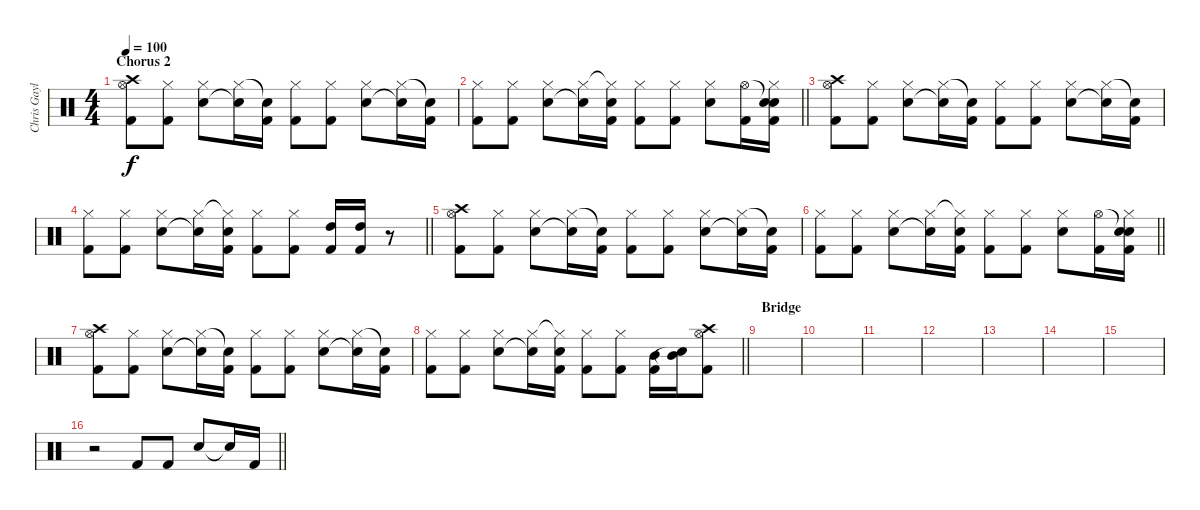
\track ("Chris Gaylor (Drums)" "Chris Gayl") {instrument percussion}
\staff {score}
\articulation defaults
\ts (4 4)
\section ("" "Chorus 2")
\tempo 100
\clef neutral
\ks c
("Hi-Hat (open)" "Crash high (hit)" "Kick (hit) 2").8{dy f} ("Hi-Hat (closed)" "Kick (hit) 2").8 ("Hi-Hat (closed)" "Snare (hit) 2").8 ("Hi-Hat (closed)" "Snare (hit)"{t}).16 ("Snare (hit)"{t} "Kick (hit) 2").16 ("Hi-Hat (closed)" "Kick (hit) 2").8 ("Hi-Hat (closed)" "Kick (hit) 2").8 ("Hi-Hat (closed)" "Snare (hit) 2").8 ("Hi-Hat (closed)" "Snare (hit)"{t}).16 ("Snare (hit)"{t} "Kick (hit) 2").16 |
\barLineRight lightlight
("Hi-Hat (closed)" "Kick (hit) 2").8 ("Hi-Hat (closed)" "Kick (hit) 2").8 ("Hi-Hat (closed)" "Snare (hit) 2").8 ("Hi-Hat (closed)" "Snare (hit)"{t}).16 ("Hi-Hat (closed)"{t} "Snare (hit) 2" "Kick (hit) 2").16 ("Hi-Hat (closed)" "Kick (hit) 2").8 ("Hi-Hat (closed)" "Kick (hit) 2").8 ("Hi-Hat (closed)" "Snare (hit) 2").8 ("Hi-Hat (open)" "Kick (hit) 2").16 ("Snare (hit)"{t} "Hi-Hat (closed)" "Snare (hit) 2" "Kick (hit) 2").16 |
("Hi-Hat (open)" "Crash high (hit)" "Kick (hit) 2").8 ("Hi-Hat (closed)" "Kick (hit) 2").8 ("Hi-Hat (closed)" "Snare (hit) 2").8 ("Hi-Hat (closed)" "Snare (hit)"{t}).16 ("Snare (hit)"{t} "Kick (hit) 2").16 ("Hi-Hat (closed)" "Kick (hit) 2").8 ("Hi-Hat (closed)" "Kick (hit) 2").8 ("Hi-Hat (closed)" "Snare (hit) 2").8 ("Hi-Hat (closed)" "Snare (hit)"{t}).16 ("Snare (hit)"{t} "Kick (hit) 2").16 |
\barLineRight lightlight
("Hi-Hat (closed)" "Kick (hit) 2").8 ("Hi-Hat (closed)" "Kick (hit) 2").8 ("Hi-Hat (closed)" "Snare (hit) 2").8 ("Hi-Hat (closed)" "Snare (hit)"{t}).16 ("Hi-Hat (closed)"{t} "Snare (hit) 2" "Kick (hit) 2").16 ("Hi-Hat (closed)" "Kick (hit) 2").8 ("Hi-Hat (closed)" "Kick (hit) 2").8 ("High Tom (hit)" "Kick (hit) 2").16 ("High Tom (hit)" "Kick (hit) 2").16 r.8 |
("Hi-Hat (open)" "Crash high (hit)" "Kick (hit) 2").8 ("Hi-Hat (closed)" "Kick (hit) 2").8 ("Hi-Hat (closed)" "Snare (hit) 2").8 ("Hi-Hat (closed)" "Snare (hit)"{t}).16 ("Snare (hit)"{t} "Kick (hit) 2").16 ("Hi-Hat (closed)" "Kick (hit) 2").8 ("Hi-Hat (closed)" "Kick (hit) 2").8 ("Hi-Hat (closed)" "Snare (hit) 2").8 ("Hi-Hat (closed)" "Snare (hit)"{t}).16 ("Snare (hit)"{t} "Kick (hit) 2").16 |
\barLineRight lightlight
("Hi-Hat (closed)" "Kick (hit) 2").8 ("Hi-Hat (closed)" "Kick (hit) 2").8 ("Hi-Hat (closed)" "Snare (hit) 2").8 ("Hi-Hat (closed)" "Snare (hit)"{t}).16 ("Hi-Hat (closed)"{t} "Snare (hit) 2" "Kick (hit) 2").16 ("Hi-Hat (closed)" "Kick (hit) 2").8 ("Hi-Hat (closed)" "Kick (hit) 2").8 ("Hi-Hat (closed)" "Snare (hit) 2").8 ("Hi-Hat (open)" "Kick (hit) 2").16 ("Snare (hit)"{t} "Hi-Hat (closed)" "Snare (hit) 2" "Kick (hit) 2").16 |
("Hi-Hat (open)" "Crash high (hit)" "Kick (hit) 2").8 ("Hi-Hat (closed)" "Kick (hit) 2").8 ("Hi-Hat (closed)" "Snare (hit) 2").8 ("Hi-Hat (closed)" "Snare (hit)"{t}).16 ("Snare (hit)"{t} "Kick (hit) 2").16 ("Hi-Hat (closed)" "Kick (hit) 2").8 ("Hi-Hat (closed)" "Kick (hit) 2").8 ("Hi-Hat (closed)" "Snare (hit) 2").8 ("Hi-Hat (closed)" "Snare (hit)"{t}).16 ("Snare (hit)"{t} "Kick (hit) 2").16 |
\barLineRight lightlight
("Hi-Hat (closed)" "Kick (hit) 2").8 ("Hi-Hat (closed)" "Kick (hit) 2").8 ("Hi-Hat (closed)" "Snare (hit) 2").8 ("Hi-Hat (closed)" "Snare (hit)"{t}).16 ("Hi-Hat (closed)"{t} "Snare (hit) 2" "Kick (hit) 2").16 ("Hi-Hat (closed)" "Kick (hit) 2").8 ("Hi-Hat (closed)" "Kick (hit) 2").8 ("Mid Tom (hit)" "Kick (hit) 2").16 ("Mid Tom (hit)" "Snare (hit)"{t}).16 ("Hi-Hat (open)" "Crash high (hit)" "Kick (hit) 2").8 |
\section ("" "Bridge")
|
|
|
|
|
|
|
\barLineRight lightlight
r.2 "Kick (hit) 2".8 "Kick (hit) 2".8 "Snare (hit) 2".8 "Snare (hit)"{t}.16 "Kick (hit) 2".16
